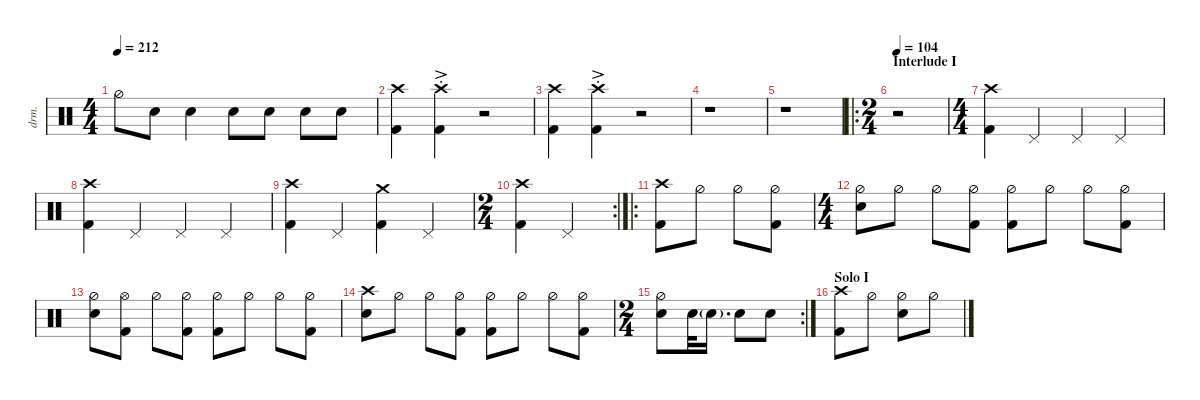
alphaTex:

\defaultSystemsLayout 4
\hideDynamics
\bracketExtendMode nobrackets
\track ("Drums" "drm.") {instrument percussion}
\staff {score}
\articulation defaults
\ts (4 4)
\tempo 212
\clef neutral
\ks c "Hi-Hat (half)".8{dy f} "Snare (hit) 2".8 "Snare (hit) 2".4 "Snare (hit) 2".8 "Snare (hit) 2".8 "Snare (hit) 2".8 "Snare (hit) 2".8
|
("Kick (hit) 2" "Crash high (hit)").4{dy ff} ("Kick (hit) 2" "Crash high (hit)"{ac st}).4 r.2 |
("Kick (hit) 2" "Crash high (hit)").4 ("Kick (hit) 2" "Crash high (hit)"{ac st}).4 r.2 |
r.1 |
r.1 |
\ro
\ts (2 4)
\beaming (8 2 2 2 2)
\section ("" "Interlude I")
\tempo 104
r.2 |
\ts (4 4)
\beaming (8 2 2 2 2)
("Kick (hit) 2" "Crash high (hit)").4{dy f} "Pedal Hi-Hat (hit)".4{dy mp} "Pedal Hi-Hat (hit)".4 "Pedal Hi-Hat (hit)".4 |
("Kick (hit) 2" "Crash high (hit)").4{dy f} "Pedal Hi-Hat (hit)".4{dy mp} "Pedal Hi-Hat (hit)".4 "Pedal Hi-Hat (hit)".4 |
("Kick (hit) 2" "Crash high (hit)").4{dy f} "Pedal Hi-Hat (hit)".4{dy mp} ("Kick (hit) 2" "Crash medium (hit)").4{dy f} "Pedal Hi-Hat (hit)".4{dy mp} |
\rc 2
\ts (2 4)
\beaming (8 2 2 2 2)
("Kick (hit) 2" "Crash high (hit)").4{dy f} "Pedal Hi-Hat (hit)".4{dy mp} |
\ro
("Kick (hit) 2" "Crash high (hit)").8{dy f} "Hi-Hat (half)".8 "Hi-Hat (half)".8 ("Hi-Hat (half)" "Kick (hit) 2").8 |
\ts (4 4)
\beaming (8 2 2 2 2)
("Hi-Hat (half)" "Snare (hit) 2").8 "Hi-Hat (half)".8 "Hi-Hat (half)".8 ("Kick (hit) 2" "Hi-Hat (half)").8 ("Hi-Hat (half)" "Kick (hit) 2").8 "Hi-Hat (half)".8 "Hi-Hat (half)".8 ("Hi-Hat (half)" "Kick (hit) 2").8 |
("Snare (hit) 2" "Hi-Hat (half)").8 ("Hi-Hat (open)" "Kick (hit) 2").8 "Hi-Hat (half)".8 ("Hi-Hat (half)" "Kick (hit) 2").8 ("Hi-Hat (half)" "Kick (hit) 2").8 "Hi-Hat (half)".8 "Hi-Hat (half)".8 ("Hi-Hat (half)" "Kick (hit) 2").8 |
("Snare (hit) 2" "Crash high (hit)").8 "Hi-Hat (half)".8 "Hi-Hat (half)".8 ("Kick (hit) 2" "Hi-Hat (half)").8 ("Hi-Hat (half)" "Kick (hit) 2").8 "Hi-Hat (half)".8 "Hi-Hat (half)".8 ("Hi-Hat (half)" "Kick (hit) 2").8 |
\rc 2
\ts (2 4)
\beaming (8 2 2 2 2)
("Snare (hit) 2" "Hi-Hat (half)").8 "Snare (hit) 2".32 "Snare (hit) 2"{g}.16{d} "Snare (hit) 2".8 "Snare (hit) 2".8 |
\section ("" "Solo I")
("Crash high (hit)" "Kick (hit) 2").8 "Hi-Hat (half)".8 ("Hi-Hat (half)" "Snare (hit) 2").8 "Hi-Hat (half)".8
